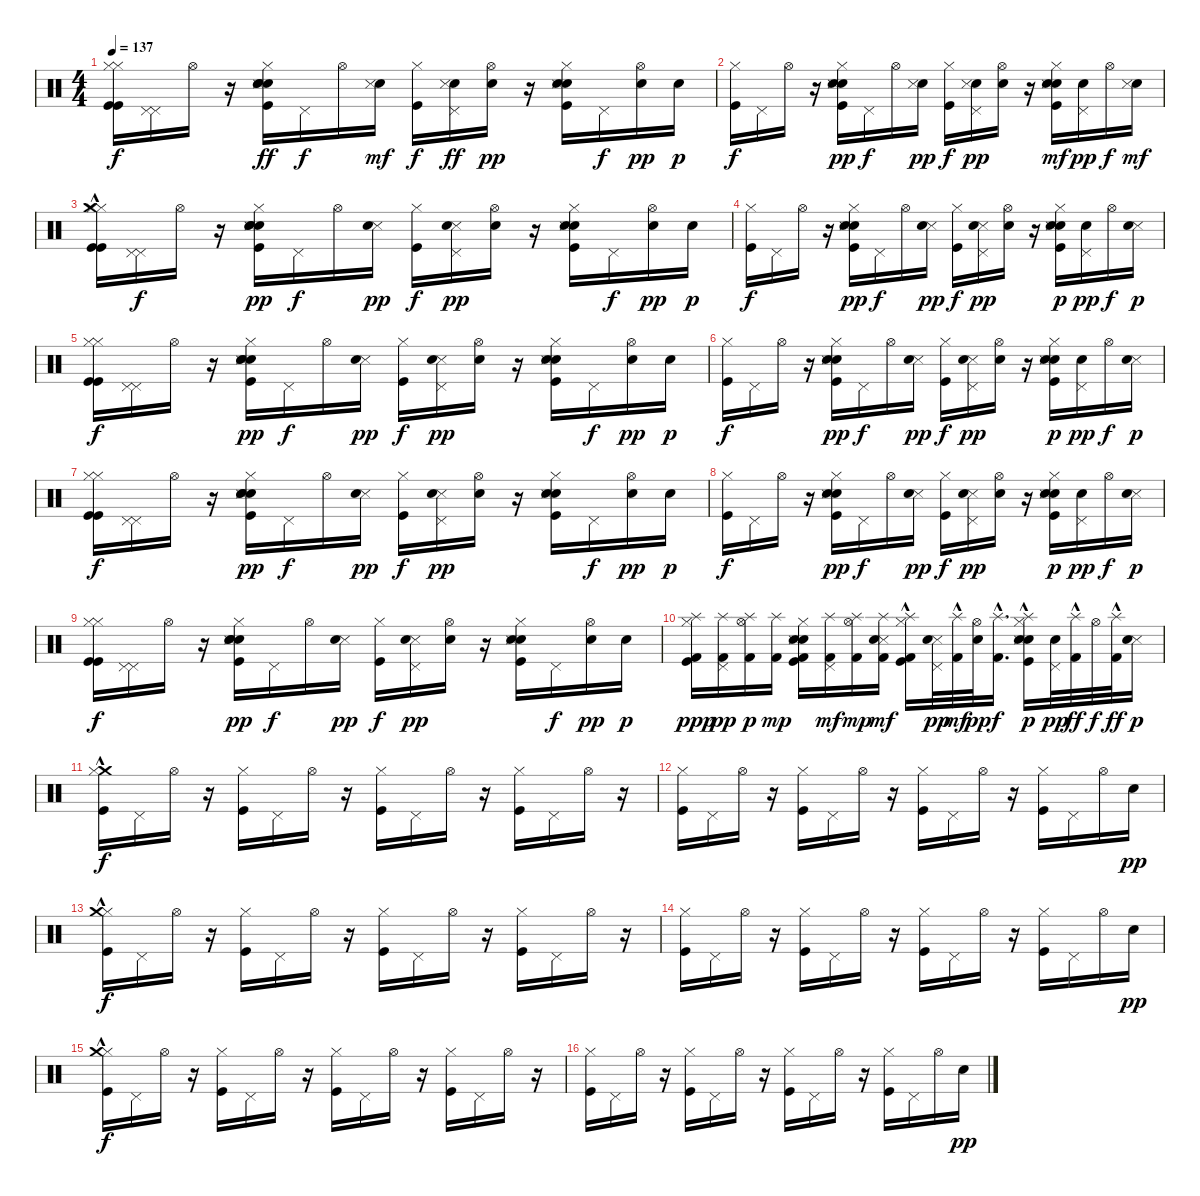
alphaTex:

\track "" {instrument percussion}
\staff {score}
\articulation defaults
\ts (4 4)
\tempo 137
\clef neutral
\ks c
("Hi-Hat (closed)" "Kick (hit)" "Kick (hit)" "Hi-Hat (closed)").16{dy f volume 13} ("Pedal Hi-Hat (hit)" "Pedal Hi-Hat (hit)").16 "Hi-Hat (open)".16 r.16 ("Hand Clap (hit)" "Kick (hit)" "Hi-Hat (closed)" "Metronome (bell)" "Metronome (bell)" "Snare (side stick) 3").16{dy ff} "Pedal Hi-Hat (hit)".16{dy f} "Hi-Hat (open)".16 ("Metronome (bell)" "Snare (side stick) 3").16{dy mf} ("Kick (hit)" "Hi-Hat (closed)").16{dy f} ("Pedal Hi-Hat (hit)" "Metronome (bell)" "Snare (side stick) 3").16{dy ff} ("Hi-Hat (open)" "Metronome (bell)").16{dy pp} r.16 ("Hand Clap (hit)" "Hi-Hat (closed)" "Kick (hit)" "Metronome (bell)" "Snare (side stick) 3").16 "Pedal Hi-Hat (hit)".16{dy f} ("Hi-Hat (open)" "Metronome (bell)").16{dy pp} "Metronome (bell)".16{dy p} |
("Hi-Hat (closed)" "Kick (hit)").16{dy f} "Pedal Hi-Hat (hit)".16 "Hi-Hat (open)".16 r.16 ("Hand Clap (hit)" "Kick (hit)" "Hi-Hat (closed)" "Metronome (bell)" "Snare (side stick) 3").16{dy pp} "Pedal Hi-Hat (hit)".16{dy f} "Hi-Hat (open)".16 ("Metronome (bell)" "Snare (side stick) 3").16{dy pp} ("Kick (hit)" "Hi-Hat (closed)").16{dy f} ("Pedal Hi-Hat (hit)" "Metronome (bell)" "Snare (side stick) 3").16{dy pp} ("Hi-Hat (open)" "Metronome (bell)").16 r.16 ("Hand Clap (hit)" "Hi-Hat (closed)" "Kick (hit)" "Metronome (bell)" "Snare (side stick) 3").16{dy mf} ("Pedal Hi-Hat (hit)" "Metronome (bell)").16{dy pp} "Hi-Hat (open)".16{dy f} ("Metronome (bell)" "Snare (side stick) 3").16{dy mf} |
("Hi-Hat (closed)" "Kick (hit)" "Kick (hit)" "Hi-Hat (closed)" "Crash medium (hit)"{hac}).16{volume 13} ("Pedal Hi-Hat (hit)" "Pedal Hi-Hat (hit)").16{dy f} "Hi-Hat (open)".16 r.16 ("Hand Clap (hit)" "Kick (hit)" "Hi-Hat (closed)" "Snare (side stick) 3" "Metronome (bell)" "Metronome (bell)").16{dy pp} "Pedal Hi-Hat (hit)".16{dy f} "Hi-Hat (open)".16 ("Snare (side stick) 3" "Metronome (bell)").16{dy pp} ("Kick (hit)" "Hi-Hat (closed)").16{dy f} ("Pedal Hi-Hat (hit)" "Snare (side stick) 3" "Metronome (bell)").16{dy pp} ("Hi-Hat (open)" "Metronome (bell)").16 r.16 ("Hand Clap (hit)" "Hi-Hat (closed)" "Kick (hit)" "Snare (side stick) 3" "Metronome (bell)").16 "Pedal Hi-Hat (hit)".16{dy f} ("Hi-Hat (open)" "Metronome (bell)").16{dy pp} "Metronome (bell)".16{dy p} |
("Hi-Hat (closed)" "Kick (hit)").16{dy f} "Pedal Hi-Hat (hit)".16 "Hi-Hat (open)".16 r.16 ("Hand Clap (hit)" "Kick (hit)" "Hi-Hat (closed)" "Snare (side stick) 3" "Metronome (bell)").16{dy pp} "Pedal Hi-Hat (hit)".16{dy f} "Hi-Hat (open)".16 ("Snare (side stick) 3" "Metronome (bell)").16{dy pp} ("Kick (hit)" "Hi-Hat (closed)").16{dy f} ("Pedal Hi-Hat (hit)" "Snare (side stick) 3" "Metronome (bell)").16{dy pp} ("Hi-Hat (open)" "Metronome (bell)").16 r.16 ("Hand Clap (hit)" "Hi-Hat (closed)" "Kick (hit)" "Snare (side stick) 3" "Metronome (bell)").16{dy p} ("Pedal Hi-Hat (hit)" "Metronome (bell)").16{dy pp} "Hi-Hat (open)".16{dy f} ("Snare (side stick) 3" "Metronome (bell)").16{dy p} |
("Hi-Hat (closed)" "Kick (hit)" "Kick (hit)" "Hi-Hat (closed)").16{dy f volume 13} ("Pedal Hi-Hat (hit)" "Pedal Hi-Hat (hit)").16 "Hi-Hat (open)".16 r.16 ("Hand Clap (hit)" "Kick (hit)" "Hi-Hat (closed)" "Snare (side stick) 3" "Metronome (bell)" "Metronome (bell)").16{dy pp} "Pedal Hi-Hat (hit)".16{dy f} "Hi-Hat (open)".16 ("Snare (side stick) 3" "Metronome (bell)").16{dy pp} ("Kick (hit)" "Hi-Hat (closed)").16{dy f} ("Pedal Hi-Hat (hit)" "Snare (side stick) 3" "Metronome (bell)").16{dy pp} ("Hi-Hat (open)" "Metronome (bell)").16 r.16 ("Hand Clap (hit)" "Hi-Hat (closed)" "Kick (hit)" "Snare (side stick) 3" "Metronome (bell)").16 "Pedal Hi-Hat (hit)".16{dy f} ("Hi-Hat (open)" "Metronome (bell)").16{dy pp} "Metronome (bell)".16{dy p} |
("Hi-Hat (closed)" "Kick (hit)").16{dy f} "Pedal Hi-Hat (hit)".16 "Hi-Hat (open)".16 r.16 ("Hand Clap (hit)" "Kick (hit)" "Hi-Hat (closed)" "Snare (side stick) 3" "Metronome (bell)").16{dy pp} "Pedal Hi-Hat (hit)".16{dy f} "Hi-Hat (open)".16 ("Snare (side stick) 3" "Metronome (bell)").16{dy pp} ("Kick (hit)" "Hi-Hat (closed)").16{dy f} ("Pedal Hi-Hat (hit)" "Snare (side stick) 3" "Metronome (bell)").16{dy pp} ("Hi-Hat (open)" "Metronome (bell)").16 r.16 ("Hand Clap (hit)" "Hi-Hat (closed)" "Kick (hit)" "Snare (side stick) 3" "Metronome (bell)").16{dy p} ("Pedal Hi-Hat (hit)" "Metronome (bell)").16{dy pp} "Hi-Hat (open)".16{dy f} ("Snare (side stick) 3" "Metronome (bell)").16{dy p} |
("Hi-Hat (closed)" "Kick (hit)" "Kick (hit)" "Hi-Hat (closed)").16{dy f volume 13} ("Pedal Hi-Hat (hit)" "Pedal Hi-Hat (hit)").16 "Hi-Hat (open)".16 r.16 ("Hand Clap (hit)" "Kick (hit)" "Hi-Hat (closed)" "Snare (side stick) 3" "Metronome (bell)" "Metronome (bell)").16{dy pp} "Pedal Hi-Hat (hit)".16{dy f} "Hi-Hat (open)".16 ("Snare (side stick) 3" "Metronome (bell)").16{dy pp} ("Kick (hit)" "Hi-Hat (closed)").16{dy f} ("Pedal Hi-Hat (hit)" "Snare (side stick) 3" "Metronome (bell)").16{dy pp} ("Hi-Hat (open)" "Metronome (bell)").16 r.16 ("Hand Clap (hit)" "Hi-Hat (closed)" "Kick (hit)" "Snare (side stick) 3" "Metronome (bell)").16 "Pedal Hi-Hat (hit)".16{dy f} ("Hi-Hat (open)" "Metronome (bell)").16{dy pp} "Metronome (bell)".16{dy p} |
("Hi-Hat (closed)" "Kick (hit)").16{dy f} "Pedal Hi-Hat (hit)".16 "Hi-Hat (open)".16 r.16 ("Hand Clap (hit)" "Kick (hit)" "Hi-Hat (closed)" "Snare (side stick) 3" "Metronome (bell)").16{dy pp} "Pedal Hi-Hat (hit)".16{dy f} "Hi-Hat (open)".16 ("Snare (side stick) 3" "Metronome (bell)").16{dy pp} ("Kick (hit)" "Hi-Hat (closed)").16{dy f} ("Pedal Hi-Hat (hit)" "Snare (side stick) 3" "Metronome (bell)").16{dy pp} ("Hi-Hat (open)" "Metronome (bell)").16 r.16 ("Hand Clap (hit)" "Hi-Hat (closed)" "Kick (hit)" "Snare (side stick) 3" "Metronome (bell)").16{dy p} ("Pedal Hi-Hat (hit)" "Metronome (bell)").16{dy pp} "Hi-Hat (open)".16{dy f} ("Snare (side stick) 3" "Metronome (bell)").16{dy p} |
("Hi-Hat (closed)" "Kick (hit)" "Kick (hit)" "Hi-Hat (closed)").16{dy f volume 13} ("Pedal Hi-Hat (hit)" "Pedal Hi-Hat (hit)").16 "Hi-Hat (open)".16 r.16 ("Hand Clap (hit)" "Kick (hit)" "Hi-Hat (closed)" "Snare (side stick) 3" "Metronome (bell)" "Metronome (bell)").16{dy pp} "Pedal Hi-Hat (hit)".16{dy f} "Hi-Hat (open)".16 ("Snare (side stick) 3" "Metronome (bell)").16{dy pp} ("Kick (hit)" "Hi-Hat (closed)").16{dy f} ("Pedal Hi-Hat (hit)" "Snare (side stick) 3" "Metronome (bell)").16{dy pp} ("Hi-Hat (open)" "Metronome (bell)").16 r.16 ("Hand Clap (hit)" "Hi-Hat (closed)" "Kick (hit)" "Snare (side stick) 3" "Metronome (bell)").16 "Pedal Hi-Hat (hit)".16{dy f} ("Hi-Hat (open)" "Metronome (bell)").16{dy pp} "Metronome (bell)".16{dy p} |
("Hi-Hat (closed)" "Kick (hit)" "Kick (hit) 2" "Splash (hit)").16{dy ppp} ("Pedal Hi-Hat (hit)" "Kick (hit) 2" "Splash (hit)").16{dy pp} ("Hi-Hat (open)" "Splash (hit)" "Kick (hit) 2").16{dy p} ("Kick (hit) 2" "Splash (hit)").16{dy mp} ("Hand Clap (hit)" "Kick (hit)" "Hi-Hat (closed)" "Snare (side stick) 3" "Metronome (bell)" "Kick (hit) 2").16 ("Pedal Hi-Hat (hit)" "Kick (hit) 2" "Splash (hit)").16{dy mf} ("Hi-Hat (open)" "Kick (hit) 2" "Splash (hit)").16{dy mp} ("Snare (side stick) 3" "Metronome (bell)" "Splash (hit)" "Kick (hit) 2").16{dy mf} ("Kick (hit)" "Hi-Hat (closed)" "Kick (hit) 2"{hac} "Splash (hit)"{hac}).16 ("Pedal Hi-Hat (hit)" "Snare (side stick) 3" "Metronome (bell)").32{dy pp} ("Splash (hit)"{hac} "Kick (hit) 2"{hac}).32{dy mf} ("Hi-Hat (open)" "Metronome (bell)").32{dy pp} ("Kick (hit) 2" "Splash (hit)"{hac}).16{d dy f} ("Hand Clap (hit)" "Hi-Hat (closed)" "Kick (hit)" "Snare (side stick) 3" "Metronome (bell)" "Splash (hit)"{hac}).16{dy p} ("Pedal Hi-Hat (hit)" "Metronome (bell)").32{dy pp} ("Kick (hit) 2"{hac} "Splash (hit)"{hac}).32{dy ff} "Hi-Hat (open)".32{dy f} ("Kick (hit) 2"{hac} "Splash (hit)"{hac}).32{dy ff} ("Snare (side stick) 3" "Metronome (bell)").16{dy p} |
("Crash medium (hit)"{hac} "Hi-Hat (closed)" "Kick (hit)").16{dy f volume 13} "Pedal Hi-Hat (hit)".16 "Hi-Hat (open)".16 r.16 ("Hi-Hat (closed)" "Kick (hit)").16 "Pedal Hi-Hat (hit)".16 "Hi-Hat (open)".16 r.16 ("Hi-Hat (closed)" "Kick (hit)").16 "Pedal Hi-Hat (hit)".16 "Hi-Hat (open)".16 r.16 ("Kick (hit)" "Hi-Hat (closed)").16 "Pedal Hi-Hat (hit)".16 "Hi-Hat (open)".16 r.16 |
("Kick (hit)" "Hi-Hat (closed)").16 "Pedal Hi-Hat (hit)".16 "Hi-Hat (open)".16 r.16 ("Kick (hit)" "Hi-Hat (closed)").16 "Pedal Hi-Hat (hit)".16 "Hi-Hat (open)".16 r.16 ("Kick (hit)" "Hi-Hat (closed)").16 "Pedal Hi-Hat (hit)".16 "Hi-Hat (open)".16 r.16 ("Kick (hit)" "Hi-Hat (closed)").16 "Pedal Hi-Hat (hit)".16 "Hi-Hat (open)".16 "Metronome (bell)".16{dy pp} |
("Hi-Hat (closed)" "Kick (hit)" "Crash medium (hit)"{hac}).16{dy f volume 13} "Pedal Hi-Hat (hit)".16 "Hi-Hat (open)".16 r.16 ("Hi-Hat (closed)" "Kick (hit)").16 "Pedal Hi-Hat (hit)".16 "Hi-Hat (open)".16 r.16 ("Hi-Hat (closed)" "Kick (hit)").16 "Pedal Hi-Hat (hit)".16 "Hi-Hat (open)".16 r.16 ("Kick (hit)" "Hi-Hat (closed)").16 "Pedal Hi-Hat (hit)".16 "Hi-Hat (open)".16 r.16 |
("Kick (hit)" "Hi-Hat (closed)").16 "Pedal Hi-Hat (hit)".16 "Hi-Hat (open)".16 r.16 ("Kick (hit)" "Hi-Hat (closed)").16 "Pedal Hi-Hat (hit)".16 "Hi-Hat (open)".16 r.16 ("Kick (hit)" "Hi-Hat (closed)").16 "Pedal Hi-Hat (hit)".16 "Hi-Hat (open)".16 r.16 ("Kick (hit)" "Hi-Hat (closed)").16 "Pedal Hi-Hat (hit)".16 "Hi-Hat (open)".16 "Metronome (bell)".16{dy pp} |
("Hi-Hat (closed)" "Kick (hit)" "Crash medium (hit)"{hac}).16{dy f volume 13} "Pedal Hi-Hat (hit)".16 "Hi-Hat (open)".16 r.16 ("Hi-Hat (closed)" "Kick (hit)").16 "Pedal Hi-Hat (hit)".16 "Hi-Hat (open)".16 r.16 ("Hi-Hat (closed)" "Kick (hit)").16 "Pedal Hi-Hat (hit)".16 "Hi-Hat (open)".16 r.16 ("Kick (hit)" "Hi-Hat (closed)").16 "Pedal Hi-Hat (hit)".16 "Hi-Hat (open)".16 r.16 |
("Kick (hit)" "Hi-Hat (closed)").16 "Pedal Hi-Hat (hit)".16 "Hi-Hat (open)".16 r.16 ("Kick (hit)" "Hi-Hat (closed)").16 "Pedal Hi-Hat (hit)".16 "Hi-Hat (open)".16 r.16 ("Kick (hit)" "Hi-Hat (closed)").16 "Pedal Hi-Hat (hit)".16 "Hi-Hat (open)".16 r.16 ("Kick (hit)" "Hi-Hat (closed)").16 "Pedal Hi-Hat (hit)".16 "Hi-Hat (open)".16 "Metronome (bell)".16{dy pp}
